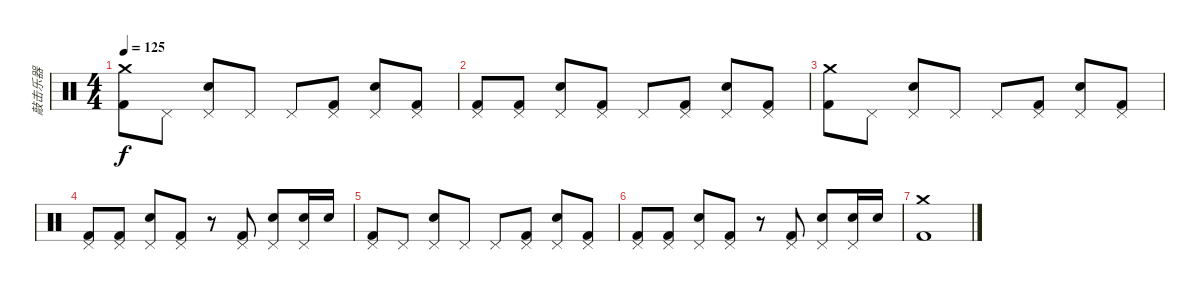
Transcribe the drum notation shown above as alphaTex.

\track ("敲击乐器" "敲击乐器") {instrument percussion}
\staff {score}
\articulation defaults
\ts (4 4)
\tempo 125
\clef neutral
\ks c
("Kick (hit) 2" "Crash medium (hit)").8{dy f} "Pedal Hi-Hat (hit)".8 ("Electric Snare (hit)" "Pedal Hi-Hat (hit)").8 "Pedal Hi-Hat (hit)".8 "Pedal Hi-Hat (hit)".8 ("Kick (hit) 2" "Pedal Hi-Hat (hit)").8 ("Electric Snare (hit)" "Pedal Hi-Hat (hit)").8 ("Kick (hit) 2" "Pedal Hi-Hat (hit)").8 |
("Kick (hit) 2" "Pedal Hi-Hat (hit)").8 ("Kick (hit) 2" "Pedal Hi-Hat (hit)").8 ("Electric Snare (hit)" "Pedal Hi-Hat (hit)").8 ("Kick (hit) 2" "Pedal Hi-Hat (hit)").8 "Pedal Hi-Hat (hit)".8 ("Kick (hit) 2" "Pedal Hi-Hat (hit)").8 ("Electric Snare (hit)" "Pedal Hi-Hat (hit)").8 ("Kick (hit) 2" "Pedal Hi-Hat (hit)").8 |
("Kick (hit) 2" "Crash medium (hit)").8 "Pedal Hi-Hat (hit)".8 ("Electric Snare (hit)" "Pedal Hi-Hat (hit)").8 "Pedal Hi-Hat (hit)".8 "Pedal Hi-Hat (hit)".8 ("Kick (hit) 2" "Pedal Hi-Hat (hit)").8 ("Electric Snare (hit)" "Pedal Hi-Hat (hit)").8 ("Kick (hit) 2" "Pedal Hi-Hat (hit)").8 |
("Kick (hit) 2" "Pedal Hi-Hat (hit)").8 ("Kick (hit) 2" "Pedal Hi-Hat (hit)").8 ("Electric Snare (hit)" "Pedal Hi-Hat (hit)").8 ("Kick (hit) 2" "Pedal Hi-Hat (hit)").8 r.8 ("Kick (hit) 2" "Pedal Hi-Hat (hit)").8 ("Electric Snare (hit)" "Pedal Hi-Hat (hit)").8 ("Electric Snare (hit)" "Pedal Hi-Hat (hit)").16 "Electric Snare (hit)".16 |
("Kick (hit) 2" "Pedal Hi-Hat (hit)").8 "Pedal Hi-Hat (hit)".8 ("Electric Snare (hit)" "Pedal Hi-Hat (hit)").8 "Pedal Hi-Hat (hit)".8 "Pedal Hi-Hat (hit)".8 ("Kick (hit) 2" "Pedal Hi-Hat (hit)").8 ("Electric Snare (hit)" "Pedal Hi-Hat (hit)").8 ("Kick (hit) 2" "Pedal Hi-Hat (hit)").8 |
("Kick (hit) 2" "Pedal Hi-Hat (hit)").8 ("Kick (hit) 2" "Pedal Hi-Hat (hit)").8 ("Electric Snare (hit)" "Pedal Hi-Hat (hit)").8 ("Kick (hit) 2" "Pedal Hi-Hat (hit)").8 r.8 ("Kick (hit) 2" "Pedal Hi-Hat (hit)").8 ("Electric Snare (hit)" "Pedal Hi-Hat (hit)").8 ("Electric Snare (hit)" "Pedal Hi-Hat (hit)").16 "Electric Snare (hit)".16 |
("Kick (hit) 2" "Crash medium (hit)").1
